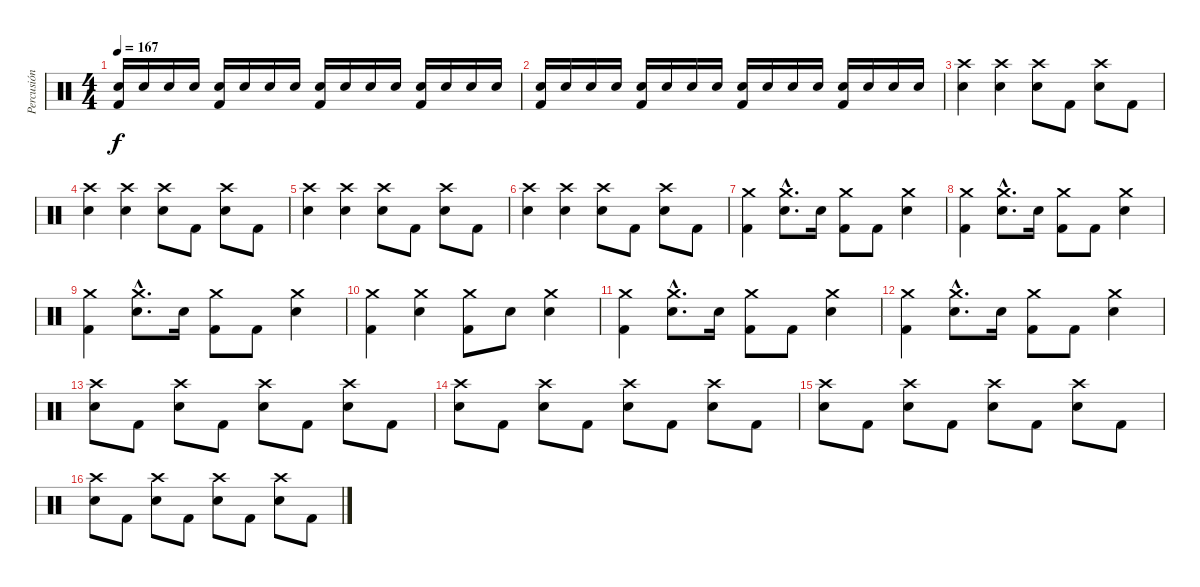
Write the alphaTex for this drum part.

\track ("Percusión" "Percusión") {instrument percussion}
\staff {score}
\articulation defaults
\ts (4 4)
\tempo 167
\clef neutral
\ks c
("Electric Snare (hit)" "Kick (hit) 2").16{dy f} "Electric Snare (hit)".16 "Electric Snare (hit)".16 "Electric Snare (hit)".16 ("Electric Snare (hit)" "Kick (hit) 2").16 "Electric Snare (hit)".16 "Electric Snare (hit)".16 "Electric Snare (hit)".16 ("Electric Snare (hit)" "Kick (hit) 2").16 "Electric Snare (hit)".16 "Electric Snare (hit)".16 "Electric Snare (hit)".16 ("Electric Snare (hit)" "Kick (hit) 2").16 "Electric Snare (hit)".16 "Electric Snare (hit)".16 "Electric Snare (hit)".16 |
("Electric Snare (hit)" "Kick (hit) 2").16 "Electric Snare (hit)".16 "Electric Snare (hit)".16 "Electric Snare (hit)".16 ("Electric Snare (hit)" "Kick (hit) 2").16 "Electric Snare (hit)".16 "Electric Snare (hit)".16 "Electric Snare (hit)".16 ("Electric Snare (hit)" "Kick (hit) 2").16 "Electric Snare (hit)".16 "Electric Snare (hit)".16 "Electric Snare (hit)".16 ("Electric Snare (hit)" "Kick (hit) 2").16 "Electric Snare (hit)".16 "Electric Snare (hit)".16 "Electric Snare (hit)".16 |
("Crash high (hit)" "Electric Snare (hit)").4 ("Crash high (hit)" "Electric Snare (hit)").4 ("Crash high (hit)" "Electric Snare (hit)").8 "Kick (hit) 2".8 ("Crash high (hit)" "Electric Snare (hit)").8 "Kick (hit) 2".8 |
("Crash high (hit)" "Electric Snare (hit)").4 ("Crash high (hit)" "Electric Snare (hit)").4 ("Crash high (hit)" "Electric Snare (hit)").8 "Kick (hit) 2".8 ("Crash high (hit)" "Electric Snare (hit)").8 "Kick (hit) 2".8 |
("Crash high (hit)" "Electric Snare (hit)").4 ("Crash high (hit)" "Electric Snare (hit)").4 ("Crash high (hit)" "Electric Snare (hit)").8 "Kick (hit) 2".8 ("Crash high (hit)" "Electric Snare (hit)").8 "Kick (hit) 2".8 |
("Crash high (hit)" "Electric Snare (hit)").4 ("Crash high (hit)" "Electric Snare (hit)").4 ("Crash high (hit)" "Electric Snare (hit)").8 "Kick (hit) 2".8 ("Crash high (hit)" "Electric Snare (hit)").8 "Kick (hit) 2".8 |
("Crash medium (hit)" "Kick (hit) 2").4 ("Crash medium (hit)"{hac} "Electric Snare (hit)"{hac}).8{d} "Electric Snare (hit)".16 ("Crash medium (hit)" "Kick (hit) 2").8 "Kick (hit) 2".8 ("Crash medium (hit)" "Electric Snare (hit)").4 |
("Crash medium (hit)" "Kick (hit) 2").4 ("Crash medium (hit)"{hac} "Electric Snare (hit)"{hac}).8{d} "Electric Snare (hit)".16 ("Crash medium (hit)" "Kick (hit) 2").8 "Kick (hit) 2".8 ("Crash medium (hit)" "Electric Snare (hit)").4 |
("Crash medium (hit)" "Kick (hit) 2").4 ("Crash medium (hit)"{hac} "Electric Snare (hit)"{hac}).8{d} "Electric Snare (hit)".16 ("Crash medium (hit)" "Kick (hit) 2").8 "Kick (hit) 2".8 ("Crash medium (hit)" "Electric Snare (hit)").4 |
("Crash medium (hit)" "Kick (hit) 2").4 ("Crash medium (hit)" "Electric Snare (hit)").4 ("Crash medium (hit)" "Kick (hit) 2").8 "Electric Snare (hit)".8 ("Crash medium (hit)" "Electric Snare (hit)").4 |
("Crash medium (hit)" "Kick (hit) 2").4 ("Crash medium (hit)"{hac} "Electric Snare (hit)"{hac}).8{d} "Electric Snare (hit)".16 ("Crash medium (hit)" "Kick (hit) 2").8 "Kick (hit) 2".8 ("Crash medium (hit)" "Electric Snare (hit)").4 |
("Crash medium (hit)" "Kick (hit) 2").4 ("Crash medium (hit)"{hac} "Electric Snare (hit)"{hac}).8{d} "Electric Snare (hit)".16 ("Crash medium (hit)" "Kick (hit) 2").8 "Kick (hit) 2".8 ("Crash medium (hit)" "Electric Snare (hit)").4 |
("Crash high (hit)" "Electric Snare (hit)").8 "Kick (hit) 2".8 ("Crash high (hit)" "Electric Snare (hit)").8 "Kick (hit) 2".8 ("Crash high (hit)" "Electric Snare (hit)").8 "Kick (hit) 2".8 ("Crash high (hit)" "Electric Snare (hit)").8 "Kick (hit) 2".8 |
("Crash high (hit)" "Electric Snare (hit)").8 "Kick (hit) 2".8 ("Crash high (hit)" "Electric Snare (hit)").8 "Kick (hit) 2".8 ("Crash high (hit)" "Electric Snare (hit)").8 "Kick (hit) 2".8 ("Crash high (hit)" "Electric Snare (hit)").8 "Kick (hit) 2".8 |
("Crash high (hit)" "Electric Snare (hit)").8 "Kick (hit) 2".8 ("Crash high (hit)" "Electric Snare (hit)").8 "Kick (hit) 2".8 ("Crash high (hit)" "Electric Snare (hit)").8 "Kick (hit) 2".8 ("Crash high (hit)" "Electric Snare (hit)").8 "Kick (hit) 2".8 |
("Crash high (hit)" "Electric Snare (hit)").8 "Kick (hit) 2".8 ("Crash high (hit)" "Electric Snare (hit)").8 "Kick (hit) 2".8 ("Crash high (hit)" "Electric Snare (hit)").8 "Kick (hit) 2".8 ("Crash high (hit)" "Electric Snare (hit)").8 "Kick (hit) 2".8
